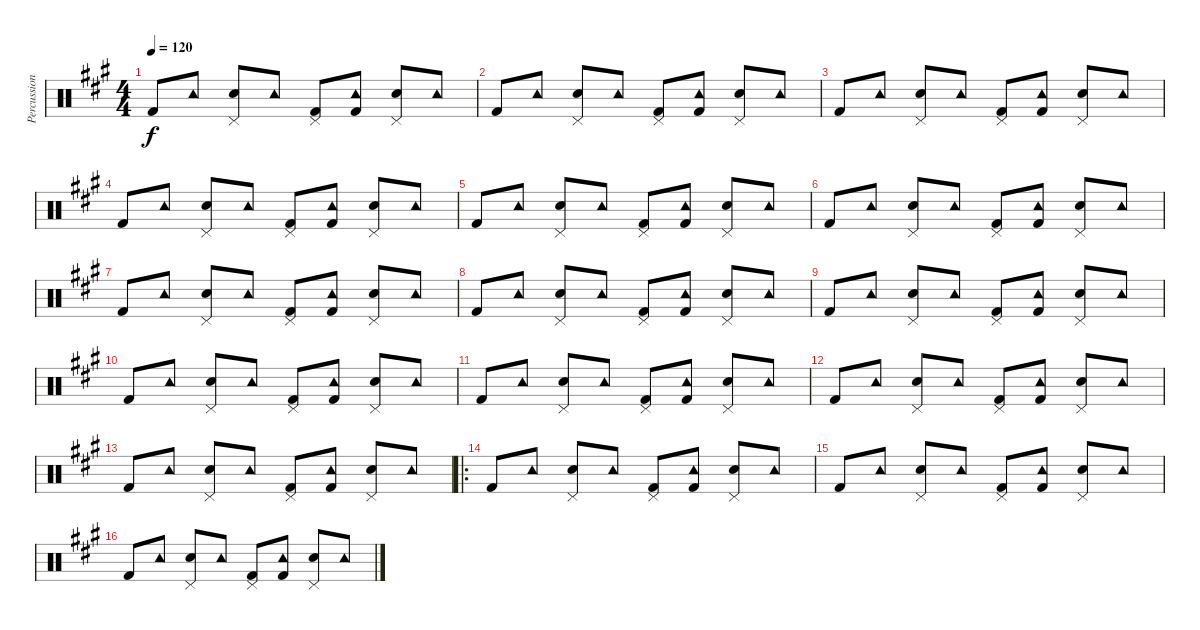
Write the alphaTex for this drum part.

\track ("Percussion" "Percussion") {instrument percussion}
\staff {score}
\articulation defaults
\ts (4 4)
\tempo 120
\clef neutral
\ks a "Kick (hit) 2".8{dy f} "Tambourine (hit)".8
("Pedal Hi-Hat (hit)" "Snare (hit) 2").8 "Tambourine (hit)".8 ("Pedal Hi-Hat (hit)" "Kick (hit) 2").8 ("Tambourine (hit)" "Kick (hit) 2").8 ("Pedal Hi-Hat (hit)" "Snare (hit) 2").8 "Tambourine (hit)".8 |
"Kick (hit) 2".8 "Tambourine (hit)".8 ("Pedal Hi-Hat (hit)" "Snare (hit) 2").8 "Tambourine (hit)".8 ("Pedal Hi-Hat (hit)" "Kick (hit) 2").8 ("Tambourine (hit)" "Kick (hit) 2").8 ("Pedal Hi-Hat (hit)" "Snare (hit) 2").8 "Tambourine (hit)".8 |
"Kick (hit) 2".8 "Tambourine (hit)".8 ("Pedal Hi-Hat (hit)" "Snare (hit) 2").8 "Tambourine (hit)".8 ("Pedal Hi-Hat (hit)" "Kick (hit) 2").8 ("Tambourine (hit)" "Kick (hit) 2").8 ("Pedal Hi-Hat (hit)" "Snare (hit) 2").8 "Tambourine (hit)".8 |
"Kick (hit) 2".8 "Tambourine (hit)".8 ("Pedal Hi-Hat (hit)" "Snare (hit) 2").8 "Tambourine (hit)".8 ("Pedal Hi-Hat (hit)" "Kick (hit) 2").8 ("Tambourine (hit)" "Kick (hit) 2").8 ("Pedal Hi-Hat (hit)" "Snare (hit) 2").8 "Tambourine (hit)".8 |
"Kick (hit) 2".8 "Tambourine (hit)".8 ("Pedal Hi-Hat (hit)" "Snare (hit) 2").8 "Tambourine (hit)".8 ("Pedal Hi-Hat (hit)" "Kick (hit) 2").8 ("Tambourine (hit)" "Kick (hit) 2").8 ("Pedal Hi-Hat (hit)" "Snare (hit) 2").8 "Tambourine (hit)".8 |
"Kick (hit) 2".8 "Tambourine (hit)".8 ("Pedal Hi-Hat (hit)" "Snare (hit) 2").8 "Tambourine (hit)".8 ("Pedal Hi-Hat (hit)" "Kick (hit) 2").8 ("Tambourine (hit)" "Kick (hit) 2").8 ("Pedal Hi-Hat (hit)" "Snare (hit) 2").8 "Tambourine (hit)".8 |
"Kick (hit) 2".8 "Tambourine (hit)".8 ("Pedal Hi-Hat (hit)" "Snare (hit) 2").8 "Tambourine (hit)".8 ("Pedal Hi-Hat (hit)" "Kick (hit) 2").8 ("Tambourine (hit)" "Kick (hit) 2").8 ("Pedal Hi-Hat (hit)" "Snare (hit) 2").8 "Tambourine (hit)".8 |
"Kick (hit) 2".8 "Tambourine (hit)".8 ("Pedal Hi-Hat (hit)" "Snare (hit) 2").8 "Tambourine (hit)".8 ("Pedal Hi-Hat (hit)" "Kick (hit) 2").8 ("Tambourine (hit)" "Kick (hit) 2").8 ("Pedal Hi-Hat (hit)" "Snare (hit) 2").8 "Tambourine (hit)".8 |
"Kick (hit) 2".8 "Tambourine (hit)".8 ("Pedal Hi-Hat (hit)" "Snare (hit) 2").8 "Tambourine (hit)".8 ("Pedal Hi-Hat (hit)" "Kick (hit) 2").8 ("Tambourine (hit)" "Kick (hit) 2").8 ("Pedal Hi-Hat (hit)" "Snare (hit) 2").8 "Tambourine (hit)".8 |
"Kick (hit) 2".8 "Tambourine (hit)".8 ("Pedal Hi-Hat (hit)" "Snare (hit) 2").8 "Tambourine (hit)".8 ("Pedal Hi-Hat (hit)" "Kick (hit) 2").8 ("Tambourine (hit)" "Kick (hit) 2").8 ("Pedal Hi-Hat (hit)" "Snare (hit) 2").8 "Tambourine (hit)".8 |
"Kick (hit) 2".8 "Tambourine (hit)".8 ("Pedal Hi-Hat (hit)" "Snare (hit) 2").8 "Tambourine (hit)".8 ("Pedal Hi-Hat (hit)" "Kick (hit) 2").8 ("Tambourine (hit)" "Kick (hit) 2").8 ("Pedal Hi-Hat (hit)" "Snare (hit) 2").8 "Tambourine (hit)".8 |
"Kick (hit) 2".8 "Tambourine (hit)".8 ("Pedal Hi-Hat (hit)" "Snare (hit) 2").8 "Tambourine (hit)".8 ("Pedal Hi-Hat (hit)" "Kick (hit) 2").8 ("Tambourine (hit)" "Kick (hit) 2").8 ("Pedal Hi-Hat (hit)" "Snare (hit) 2").8 "Tambourine (hit)".8 |
"Kick (hit) 2".8 "Tambourine (hit)".8 ("Pedal Hi-Hat (hit)" "Snare (hit) 2").8 "Tambourine (hit)".8 ("Pedal Hi-Hat (hit)" "Kick (hit) 2").8 ("Tambourine (hit)" "Kick (hit) 2").8 ("Pedal Hi-Hat (hit)" "Snare (hit) 2").8 "Tambourine (hit)".8 |
\ro "Kick (hit) 2".8 "Tambourine (hit)".8
("Pedal Hi-Hat (hit)" "Snare (hit) 2").8 "Tambourine (hit)".8 ("Pedal Hi-Hat (hit)" "Kick (hit) 2").8 ("Tambourine (hit)" "Kick (hit) 2").8 ("Pedal Hi-Hat (hit)" "Snare (hit) 2").8 "Tambourine (hit)".8 |
"Kick (hit) 2".8 "Tambourine (hit)".8 ("Pedal Hi-Hat (hit)" "Snare (hit) 2").8 "Tambourine (hit)".8 ("Pedal Hi-Hat (hit)" "Kick (hit) 2").8 ("Tambourine (hit)" "Kick (hit) 2").8 ("Pedal Hi-Hat (hit)" "Snare (hit) 2").8 "Tambourine (hit)".8 |
"Kick (hit) 2".8 "Tambourine (hit)".8 ("Pedal Hi-Hat (hit)" "Snare (hit) 2").8 "Tambourine (hit)".8 ("Pedal Hi-Hat (hit)" "Kick (hit) 2").8 ("Tambourine (hit)" "Kick (hit) 2").8 ("Pedal Hi-Hat (hit)" "Snare (hit) 2").8 "Tambourine (hit)".8
